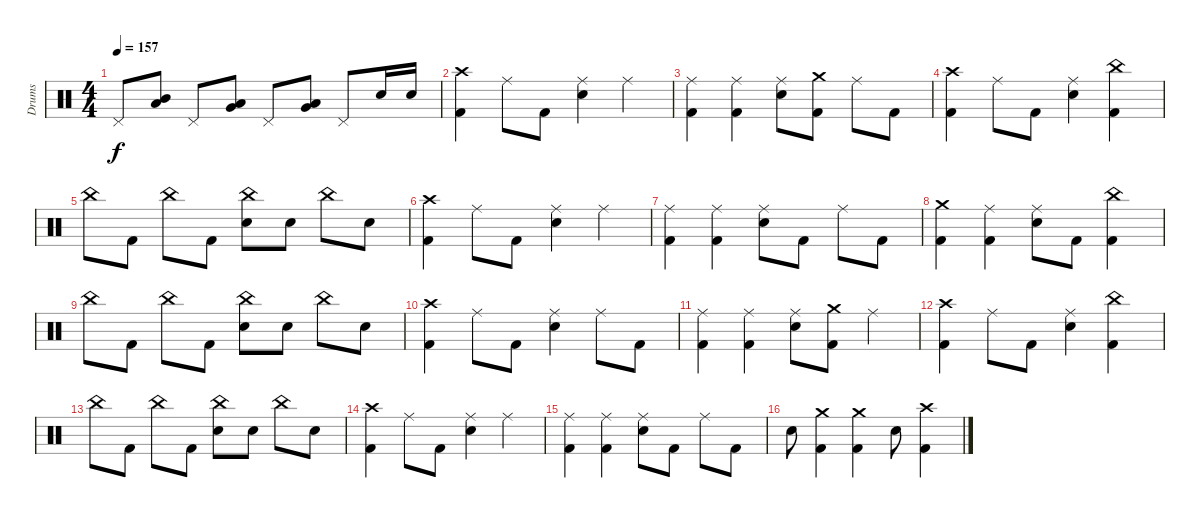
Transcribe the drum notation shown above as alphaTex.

\track ("Drums" "Drums") {instrument percussion}
\staff {score}
\articulation defaults
\ts (4 4)
\tempo 157
\clef neutral
\ks c "Pedal Hi-Hat (hit)".8{dy f}
("Mid Tom (hit)" "Low Tom (hit)").8 "Pedal Hi-Hat (hit)".8 ("Low Tom (hit)" "Very Low Tom (hit)").8 "Pedal Hi-Hat (hit)".8 ("Very Low Tom (hit)" "Low Floor Tom (hit)").8 "Pedal Hi-Hat (hit)".8 "Electric Snare (hit)".16 "Electric Snare (hit)".16 |
("Crash high (hit)" "Kick (hit) 2").4 "Ride (middle)".8 "Kick (hit) 2".8 ("Ride (middle)" "Electric Snare (hit)").4 "Ride (middle)".4 |
("Ride (middle)" "Kick (hit) 2").4 ("Ride (middle)" "Kick (hit) 2").4 ("Ride (middle)" "Electric Snare (hit)").8 ("Crash medium (hit)" "Kick (hit) 2").8 "Ride (middle)".8 "Kick (hit) 2".8 |
("Crash high (hit)" "Kick (hit) 2").4 "Ride (middle)".8 "Kick (hit) 2".8 ("Ride (middle)" "Electric Snare (hit)").4 ("China (hit)" "Kick (hit) 2").4 |
"China (hit)".8 "Kick (hit) 2".8 "China (hit)".8 "Kick (hit) 2".8 ("China (hit)" "Electric Snare (hit)").8 "Electric Snare (hit)".8 "China (hit)".8 "Electric Snare (hit)".8 |
("Crash high (hit)" "Kick (hit) 2").4 "Ride (middle)".8 "Kick (hit) 2".8 ("Ride (middle)" "Electric Snare (hit)").4 "Ride (middle)".4 |
("Ride (middle)" "Kick (hit) 2").4 ("Ride (middle)" "Kick (hit) 2").4 ("Ride (middle)" "Electric Snare (hit)").8 "Kick (hit) 2".8 "Ride (middle)".8 "Kick (hit) 2".8 |
("Crash medium (hit)" "Kick (hit) 2").4 ("Ride (middle)" "Kick (hit) 2").4 ("Ride (middle)" "Electric Snare (hit)").8 "Kick (hit) 2".8 ("China (hit)" "Kick (hit) 2").4 |
"China (hit)".8 "Kick (hit) 2".8 "China (hit)".8 "Kick (hit) 2".8 ("China (hit)" "Electric Snare (hit)").8 "Electric Snare (hit)".8 "China (hit)".8 "Electric Snare (hit)".8 |
("Crash high (hit)" "Kick (hit) 2").4 "Ride (middle)".8 "Kick (hit) 2".8 ("Ride (middle)" "Electric Snare (hit)").4 "Ride (middle)".8 "Kick (hit) 2".8 |
("Ride (middle)" "Kick (hit) 2").4 ("Ride (middle)" "Kick (hit) 2").4 ("Ride (middle)" "Electric Snare (hit)").8 ("Crash medium (hit)" "Kick (hit) 2").8 "Ride (middle)".4 |
("Crash high (hit)" "Kick (hit) 2").4 "Ride (middle)".8 "Kick (hit) 2".8 ("Ride (middle)" "Electric Snare (hit)").4 ("China (hit)" "Kick (hit) 2").4 |
"China (hit)".8 "Kick (hit) 2".8 "China (hit)".8 "Kick (hit) 2".8 ("China (hit)" "Electric Snare (hit)").8 "Electric Snare (hit)".8 "China (hit)".8 "Electric Snare (hit)".8 |
("Crash high (hit)" "Kick (hit) 2").4 "Ride (middle)".8 "Kick (hit) 2".8 ("Ride (middle)" "Electric Snare (hit)").4 "Ride (middle)".4 |
("Ride (middle)" "Kick (hit) 2").4 ("Ride (middle)" "Kick (hit) 2").4 ("Ride (middle)" "Electric Snare (hit)").8 "Kick (hit) 2".8 "Ride (middle)".8 "Kick (hit) 2".8 |
"Electric Snare (hit)".8 ("Crash medium (hit)" "Kick (hit) 2").4 ("Crash medium (hit)" "Kick (hit) 2").4 "Electric Snare (hit)".8 ("Crash high (hit)" "Kick (hit) 2").4
